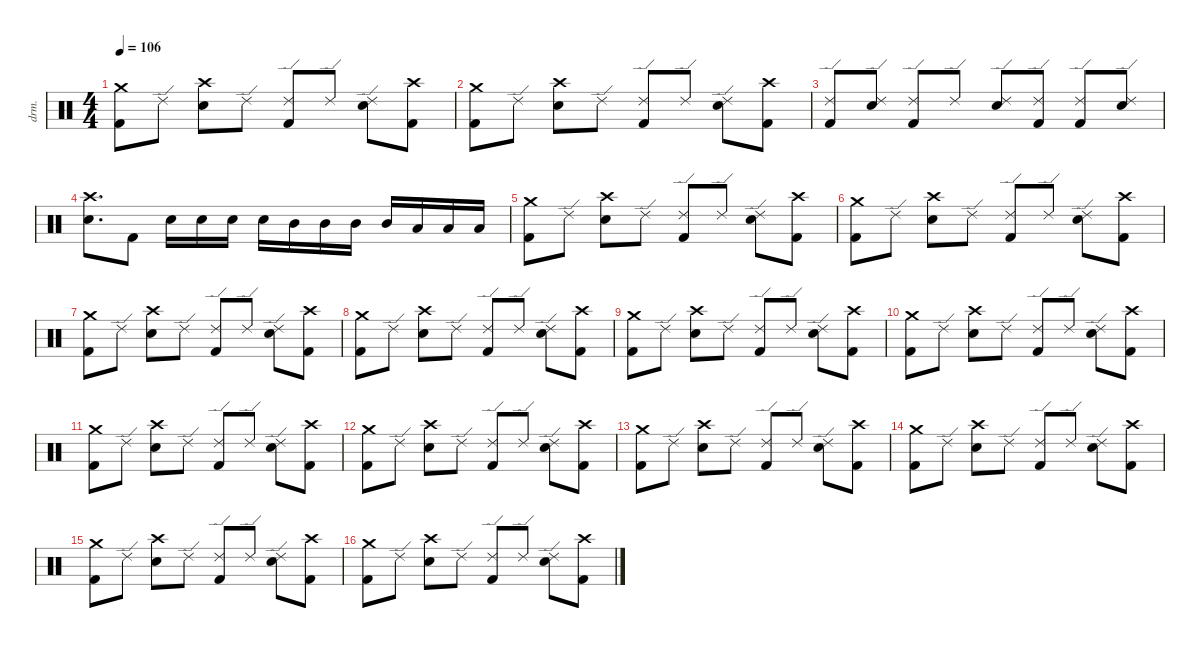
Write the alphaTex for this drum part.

\defaultSystemsLayout 4
\hideDynamics
\bracketExtendMode nobrackets
\track ("Lee Kerslake" "drm.") {solo instrument percussion}
\staff {score}
\articulation defaults
\ts (4 4)
\tempo 106
\clef neutral
\ks c
("Crash medium (hit)" "Kick (hit) 2").8{dy f} "Ride (edge) 2".8 ("Crash high (hit)" "Snare (hit) 2").8 "Ride (edge) 2".8 ("Ride (edge) 2" "Kick (hit) 2").8 "Ride (edge) 2".8 ("Ride (edge) 2" "Snare (hit) 2").8 ("Crash high (hit)" "Kick (hit) 2").8 |
("Crash medium (hit)" "Kick (hit) 2").8 "Ride (edge) 2".8 ("Crash high (hit)" "Snare (hit) 2").8 "Ride (edge) 2".8 ("Ride (edge) 2" "Kick (hit) 2").8 "Ride (edge) 2".8 ("Ride (edge) 2" "Snare (hit) 2").8 ("Crash high (hit)" "Kick (hit) 2").8 |
("Ride (edge) 2" "Kick (hit) 2").8 ("Ride (edge) 2" "Snare (hit) 2").8 ("Ride (edge) 2" "Kick (hit) 2").8 "Ride (edge) 2".8 ("Ride (edge) 2" "Snare (hit) 2").8 ("Ride (edge) 2" "Kick (hit) 2").8 ("Ride (edge) 2" "Kick (hit) 2").8 ("Ride (edge) 2" "Snare (hit) 2").8 |
("Crash high (hit)" "Snare (hit) 2").8{d} "Kick (hit) 2".8 "Snare (hit) 2".16 "Snare (hit) 2".16 "Snare (hit) 2".16 "Snare (hit) 2".16 "Mid Tom (hit)".16 "Mid Tom (hit)".16 "Mid Tom (hit)".16 "Mid Tom (hit)".16 "Low Tom (hit)".16 "Low Tom (hit)".16 "Low Tom (hit)".16 |
("Crash medium (hit)" "Kick (hit) 2").8 "Ride (edge) 2".8 ("Crash high (hit)" "Snare (hit) 2").8 "Ride (edge) 2".8 ("Ride (edge) 2" "Kick (hit) 2").8 "Ride (edge) 2".8 ("Ride (edge) 2" "Snare (hit) 2").8 ("Crash high (hit)" "Kick (hit) 2").8 |
("Crash medium (hit)" "Kick (hit) 2").8 "Ride (edge) 2".8 ("Crash high (hit)" "Snare (hit) 2").8 "Ride (edge) 2".8 ("Ride (edge) 2" "Kick (hit) 2").8 "Ride (edge) 2".8 ("Ride (edge) 2" "Snare (hit) 2").8 ("Crash high (hit)" "Kick (hit) 2").8 |
("Crash medium (hit)" "Kick (hit) 2").8 "Ride (edge) 2".8 ("Crash high (hit)" "Snare (hit) 2").8 "Ride (edge) 2".8 ("Ride (edge) 2" "Kick (hit) 2").8 "Ride (edge) 2".8 ("Ride (edge) 2" "Snare (hit) 2").8 ("Crash high (hit)" "Kick (hit) 2").8 |
("Crash medium (hit)" "Kick (hit) 2").8 "Ride (edge) 2".8 ("Crash high (hit)" "Snare (hit) 2").8 "Ride (edge) 2".8 ("Ride (edge) 2" "Kick (hit) 2").8 "Ride (edge) 2".8 ("Ride (edge) 2" "Snare (hit) 2").8 ("Crash high (hit)" "Kick (hit) 2").8 |
("Crash medium (hit)" "Kick (hit) 2").8 "Ride (edge) 2".8 ("Crash high (hit)" "Snare (hit) 2").8 "Ride (edge) 2".8 ("Ride (edge) 2" "Kick (hit) 2").8 "Ride (edge) 2".8 ("Ride (edge) 2" "Snare (hit) 2").8 ("Crash high (hit)" "Kick (hit) 2").8 |
("Crash medium (hit)" "Kick (hit) 2").8 "Ride (edge) 2".8 ("Crash high (hit)" "Snare (hit) 2").8 "Ride (edge) 2".8 ("Ride (edge) 2" "Kick (hit) 2").8 "Ride (edge) 2".8 ("Ride (edge) 2" "Snare (hit) 2").8 ("Crash high (hit)" "Kick (hit) 2").8 |
("Crash medium (hit)" "Kick (hit) 2").8 "Ride (edge) 2".8 ("Crash high (hit)" "Snare (hit) 2").8 "Ride (edge) 2".8 ("Ride (edge) 2" "Kick (hit) 2").8 "Ride (edge) 2".8 ("Ride (edge) 2" "Snare (hit) 2").8 ("Crash high (hit)" "Kick (hit) 2").8 |
("Crash medium (hit)" "Kick (hit) 2").8 "Ride (edge) 2".8 ("Crash high (hit)" "Snare (hit) 2").8 "Ride (edge) 2".8 ("Ride (edge) 2" "Kick (hit) 2").8 "Ride (edge) 2".8 ("Ride (edge) 2" "Snare (hit) 2").8 ("Crash high (hit)" "Kick (hit) 2").8 |
("Crash medium (hit)" "Kick (hit) 2").8 "Ride (edge) 2".8 ("Crash high (hit)" "Snare (hit) 2").8 "Ride (edge) 2".8 ("Ride (edge) 2" "Kick (hit) 2").8 "Ride (edge) 2".8 ("Ride (edge) 2" "Snare (hit) 2").8 ("Crash high (hit)" "Kick (hit) 2").8 |
("Crash medium (hit)" "Kick (hit) 2").8 "Ride (edge) 2".8 ("Crash high (hit)" "Snare (hit) 2").8 "Ride (edge) 2".8 ("Ride (edge) 2" "Kick (hit) 2").8 "Ride (edge) 2".8 ("Ride (edge) 2" "Snare (hit) 2").8 ("Crash high (hit)" "Kick (hit) 2").8 |
("Crash medium (hit)" "Kick (hit) 2").8 "Ride (edge) 2".8 ("Crash high (hit)" "Snare (hit) 2").8 "Ride (edge) 2".8 ("Ride (edge) 2" "Kick (hit) 2").8 "Ride (edge) 2".8 ("Ride (edge) 2" "Snare (hit) 2").8 ("Crash high (hit)" "Kick (hit) 2").8 |
("Crash medium (hit)" "Kick (hit) 2").8 "Ride (edge) 2".8 ("Crash high (hit)" "Snare (hit) 2").8 "Ride (edge) 2".8 ("Ride (edge) 2" "Kick (hit) 2").8 "Ride (edge) 2".8 ("Ride (edge) 2" "Snare (hit) 2").8 ("Crash high (hit)" "Kick (hit) 2").8
